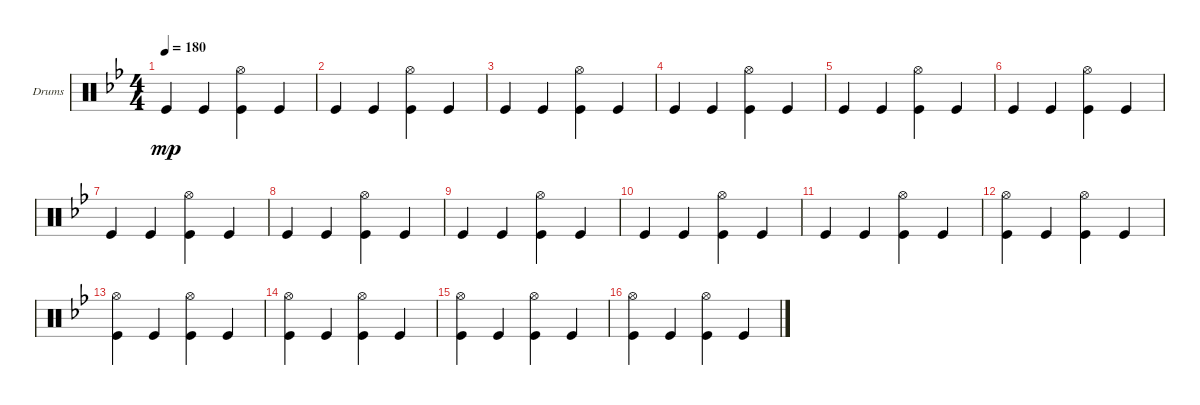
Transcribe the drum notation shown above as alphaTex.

\defaultSystemsLayout 4
\bracketExtendMode groupsimilarinstruments
\firstSystemTrackNameOrientation horizontal
\otherSystemsTrackNameOrientation horizontal
\track ("Drumkit" "Drums") {instrument percussion}
\staff {score}
\articulation defaults
\ts (4 4)
\tempo 180
\clef neutral
\ks bb "Kick (hit)".4{dy mp} "Kick (hit)".4
("Kick (hit)" "Hi-Hat (open)").4 "Kick (hit)".4 |
"Kick (hit)".4 "Kick (hit)".4 ("Kick (hit)" "Hi-Hat (open)").4 "Kick (hit)".4 |
"Kick (hit)".4 "Kick (hit)".4 ("Kick (hit)" "Hi-Hat (open)").4 "Kick (hit)".4 |
"Kick (hit)".4 "Kick (hit)".4 ("Kick (hit)" "Hi-Hat (open)").4 "Kick (hit)".4 |
"Kick (hit)".4 "Kick (hit)".4 ("Kick (hit)" "Hi-Hat (open)").4 "Kick (hit)".4 |
"Kick (hit)".4 "Kick (hit)".4 ("Kick (hit)" "Hi-Hat (open)").4 "Kick (hit)".4 |
"Kick (hit)".4 "Kick (hit)".4 ("Kick (hit)" "Hi-Hat (open)").4 "Kick (hit)".4 |
"Kick (hit)".4 "Kick (hit)".4 ("Kick (hit)" "Hi-Hat (open)").4 "Kick (hit)".4 |
"Kick (hit)".4 "Kick (hit)".4 ("Kick (hit)" "Hi-Hat (open)").4 "Kick (hit)".4 |
"Kick (hit)".4 "Kick (hit)".4 ("Kick (hit)" "Hi-Hat (open)").4 "Kick (hit)".4 |
"Kick (hit)".4 "Kick (hit)".4 ("Kick (hit)" "Hi-Hat (open)").4 "Kick (hit)".4 |
("Hi-Hat (open)" "Kick (hit)").4 "Kick (hit)".4 ("Kick (hit)" "Hi-Hat (open)").4 "Kick (hit)".4 |
("Hi-Hat (open)" "Kick (hit)").4 "Kick (hit)".4 ("Kick (hit)" "Hi-Hat (open)").4 "Kick (hit)".4 |
("Hi-Hat (open)" "Kick (hit)").4 "Kick (hit)".4 ("Kick (hit)" "Hi-Hat (open)").4 "Kick (hit)".4 |
("Hi-Hat (open)" "Kick (hit)").4 "Kick (hit)".4 ("Kick (hit)" "Hi-Hat (open)").4 "Kick (hit)".4 |
("Hi-Hat (open)" "Kick (hit)").4 "Kick (hit)".4 ("Kick (hit)" "Hi-Hat (open)").4 "Kick (hit)".4
